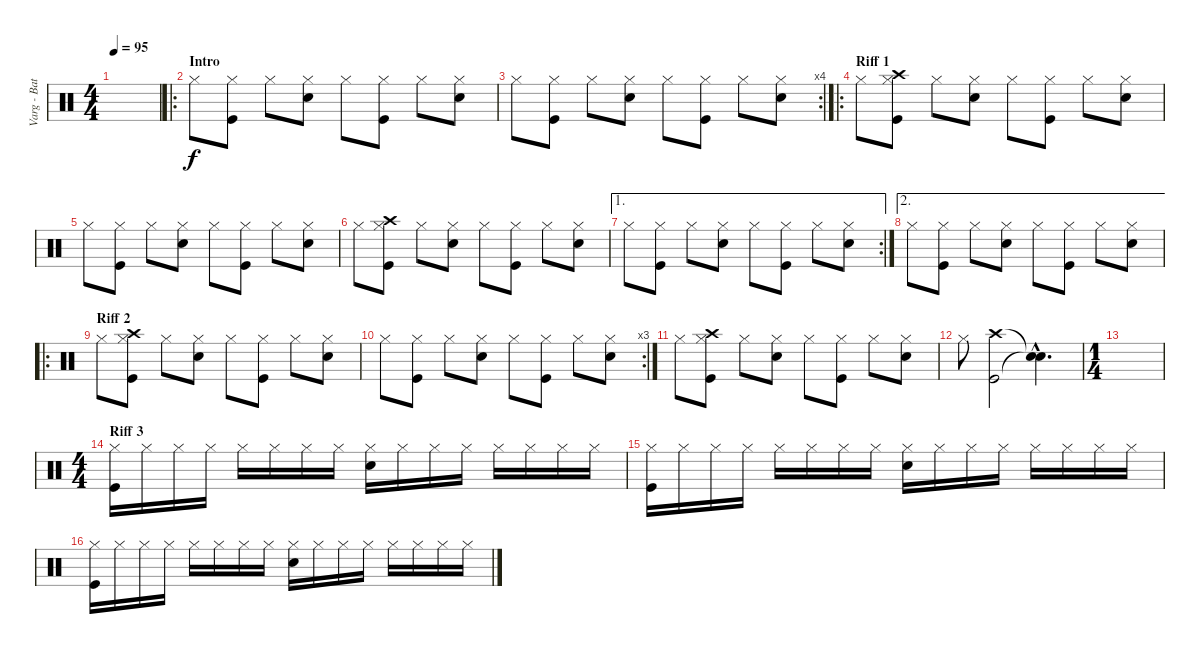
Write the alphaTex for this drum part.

\track ("Varg - Batterie" "Varg - Bat") {instrument percussion}
\staff {score}
\articulation defaults
\ts (4 4)
\tempo 95
\clef neutral
\ks c
|
\ro
\section ("" "Intro")
"Hi-Hat (closed)".8 ("Hi-Hat (closed)" "Kick (hit)").8 "Hi-Hat (closed)".8 ("Hi-Hat (closed)" "Electric Snare (hit)").8 "Hi-Hat (closed)".8 ("Hi-Hat (closed)" "Kick (hit)").8 "Hi-Hat (closed)".8 ("Hi-Hat (closed)" "Electric Snare (hit)").8 |
\rc 4 "Hi-Hat (closed)".8
("Hi-Hat (closed)" "Kick (hit)").8 "Hi-Hat (closed)".8 ("Hi-Hat (closed)" "Electric Snare (hit)").8 "Hi-Hat (closed)".8 ("Hi-Hat (closed)" "Kick (hit)").8 "Hi-Hat (closed)".8 ("Hi-Hat (closed)" "Electric Snare (hit)").8 |
\ro
\section ("" "Riff 1")
"Hi-Hat (closed)".8 ("Hi-Hat (closed)" "Crash high (hit)" "Kick (hit)").8 "Hi-Hat (closed)".8 ("Hi-Hat (closed)" "Electric Snare (hit)").8 "Hi-Hat (closed)".8 ("Hi-Hat (closed)" "Kick (hit)").8 "Hi-Hat (closed)".8 ("Hi-Hat (closed)" "Electric Snare (hit)").8 |
"Hi-Hat (closed)".8 ("Hi-Hat (closed)" "Kick (hit)").8 "Hi-Hat (closed)".8 ("Hi-Hat (closed)" "Electric Snare (hit)").8 "Hi-Hat (closed)".8 ("Hi-Hat (closed)" "Kick (hit)").8 "Hi-Hat (closed)".8 ("Hi-Hat (closed)" "Electric Snare (hit)").8 |
"Hi-Hat (closed)".8 ("Hi-Hat (closed)" "Crash high (hit)" "Kick (hit)").8 "Hi-Hat (closed)".8 ("Hi-Hat (closed)" "Electric Snare (hit)").8 "Hi-Hat (closed)".8 ("Hi-Hat (closed)" "Kick (hit)").8 "Hi-Hat (closed)".8 ("Hi-Hat (closed)" "Electric Snare (hit)").8 |
\ae 1
\rc 2 "Hi-Hat (closed)".8
("Hi-Hat (closed)" "Kick (hit)").8 "Hi-Hat (closed)".8 ("Hi-Hat (closed)" "Electric Snare (hit)").8 "Hi-Hat (closed)".8 ("Hi-Hat (closed)" "Kick (hit)").8 "Hi-Hat (closed)".8 ("Hi-Hat (closed)" "Electric Snare (hit)").8 |
\ae 2 "Hi-Hat (closed)".8
("Hi-Hat (closed)" "Kick (hit)").8 "Hi-Hat (closed)".8 ("Hi-Hat (closed)" "Electric Snare (hit)").8 "Hi-Hat (closed)".8 ("Hi-Hat (closed)" "Kick (hit)").8 "Hi-Hat (closed)".8 ("Hi-Hat (closed)" "Electric Snare (hit)").8 |
\ro
\section ("" "Riff 2")
"Hi-Hat (closed)".8 ("Hi-Hat (closed)" "Crash high (hit)" "Kick (hit)").8 "Hi-Hat (closed)".8 ("Hi-Hat (closed)" "Electric Snare (hit)").8 "Hi-Hat (closed)".8 ("Hi-Hat (closed)" "Kick (hit)").8 "Hi-Hat (closed)".8 ("Hi-Hat (closed)" "Electric Snare (hit)").8 |
\rc 3 "Hi-Hat (closed)".8
("Hi-Hat (closed)" "Kick (hit)").8 "Hi-Hat (closed)".8 ("Hi-Hat (closed)" "Electric Snare (hit)").8 "Hi-Hat (closed)".8 ("Hi-Hat (closed)" "Kick (hit)").8 "Hi-Hat (closed)".8 ("Hi-Hat (closed)" "Electric Snare (hit)").8 |
"Hi-Hat (closed)".8 ("Hi-Hat (closed)" "Crash high (hit)" "Kick (hit)").8 "Hi-Hat (closed)".8 ("Hi-Hat (closed)" "Electric Snare (hit)").8 "Hi-Hat (closed)".8 ("Hi-Hat (closed)" "Kick (hit)").8 "Hi-Hat (closed)".8 ("Hi-Hat (closed)" "Electric Snare (hit)").8 |
"Hi-Hat (closed)".8 ("Crash high (hit)" "Kick (hit)").2 ("Snare (hit)"{hac t} "Snare (hit)"{hac t}).4{d} |
\ts (1 4)
|
\ts (4 4)
\section ("" "Riff 3")
("Hi-Hat (closed)" "Kick (hit)").16 "Hi-Hat (closed)".16 "Hi-Hat (closed)".16 "Hi-Hat (closed)".16 "Hi-Hat (closed)".16 "Hi-Hat (closed)".16 "Hi-Hat (closed)".16 "Hi-Hat (closed)".16 ("Hi-Hat (closed)" "Electric Snare (hit)").16 "Hi-Hat (closed)".16 "Hi-Hat (closed)".16 "Hi-Hat (closed)".16 "Hi-Hat (closed)".16 "Hi-Hat (closed)".16 "Hi-Hat (closed)".16 "Hi-Hat (closed)".16 |
("Hi-Hat (closed)" "Kick (hit)").16 "Hi-Hat (closed)".16 "Hi-Hat (closed)".16 "Hi-Hat (closed)".16 "Hi-Hat (closed)".16 "Hi-Hat (closed)".16 "Hi-Hat (closed)".16 "Hi-Hat (closed)".16 ("Hi-Hat (closed)" "Electric Snare (hit)").16 "Hi-Hat (closed)".16 "Hi-Hat (closed)".16 "Hi-Hat (closed)".16 "Hi-Hat (closed)".16 "Hi-Hat (closed)".16 "Hi-Hat (closed)".16 "Hi-Hat (closed)".16 |
("Hi-Hat (closed)" "Kick (hit)").16 "Hi-Hat (closed)".16 "Hi-Hat (closed)".16 "Hi-Hat (closed)".16 "Hi-Hat (closed)".16 "Hi-Hat (closed)".16 "Hi-Hat (closed)".16 "Hi-Hat (closed)".16 ("Hi-Hat (closed)" "Electric Snare (hit)").16 "Hi-Hat (closed)".16 "Hi-Hat (closed)".16 "Hi-Hat (closed)".16 "Hi-Hat (closed)".16 "Hi-Hat (closed)".16 "Hi-Hat (closed)".16 "Hi-Hat (closed)".16
